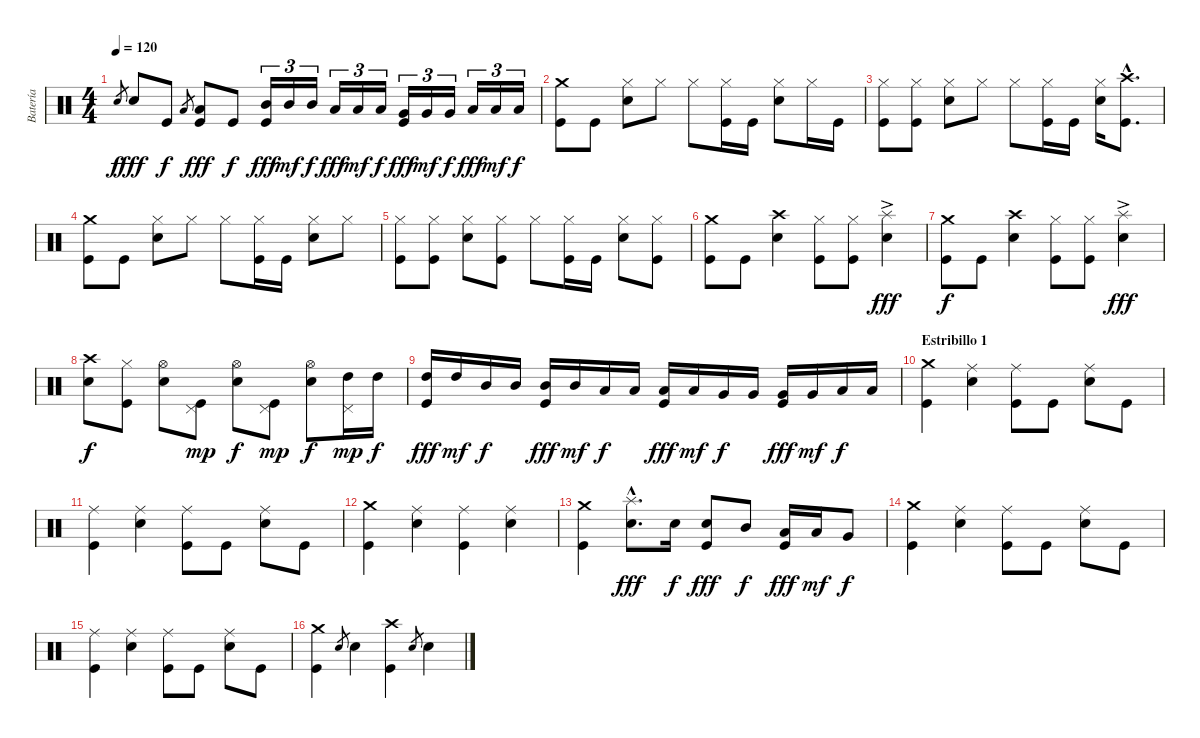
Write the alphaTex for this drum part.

\track ("Batería" "Batería") {instrument percussion}
\staff {score}
\articulation defaults
\ts (4 4)
\tempo 120
\clef neutral
\ks c "Electric Snare (hit)".8{gr dy f} "Electric Snare (hit)".8{dy fff} "Kick (hit)".8{dy f} "Low Tom (hit)".8{gr}
("Kick (hit)" "Low Tom (hit)").8{dy fff} "Kick (hit)".8{dy f} ("Kick (hit)" "Mid Tom (hit)").16{tu (3 2) dy fff} "Mid Tom (hit)".16{tu (3 2) dy mf} "Mid Tom (hit)".16{tu (3 2) dy f} "Low Tom (hit)".16{tu (3 2) dy fff} "Low Tom (hit)".16{tu (3 2) dy mf} "Low Tom (hit)".16{tu (3 2) dy f} ("Kick (hit)" "Very Low Tom (hit)").16{tu (3 2) dy fff} "Very Low Tom (hit)".16{tu (3 2) dy mf} "Very Low Tom (hit)".16{tu (3 2) dy f} "Low Floor Tom (hit)".16{tu (3 2) dy fff} "Low Floor Tom (hit)".16{tu (3 2) dy mf} "Low Floor Tom (hit)".16{tu (3 2) dy f} |
("Kick (hit)" "Crash medium (hit)").8 "Kick (hit)".8 ("Electric Snare (hit)" "Hi-Hat (closed)").8 "Hi-Hat (closed)".8 "Hi-Hat (closed)".8 ("Kick (hit)" "Hi-Hat (closed)").16 "Kick (hit)".16 ("Electric Snare (hit)" "Hi-Hat (closed)").8 "Hi-Hat (closed)".16 "Kick (hit)".16 |
("Kick (hit)" "Hi-Hat (closed)").8 ("Kick (hit)" "Hi-Hat (closed)").8 ("Electric Snare (hit)" "Hi-Hat (closed)").8 "Hi-Hat (closed)".8 "Hi-Hat (closed)".8 ("Kick (hit)" "Hi-Hat (closed)").16 "Kick (hit)".16 ("Electric Snare (hit)" "Hi-Hat (closed)").16 ("Kick (hit)"{hac} "Crash high (hit)"{hac}).8{d} |
("Kick (hit)" "Crash medium (hit)").8 "Kick (hit)".8 ("Electric Snare (hit)" "Hi-Hat (closed)").8 "Hi-Hat (closed)".8 "Hi-Hat (closed)".8 ("Kick (hit)" "Hi-Hat (closed)").16 "Kick (hit)".16 ("Electric Snare (hit)" "Hi-Hat (closed)").8 "Hi-Hat (closed)".8 |
("Kick (hit)" "Hi-Hat (closed)").8 ("Kick (hit)" "Hi-Hat (closed)").8 ("Electric Snare (hit)" "Hi-Hat (closed)").8 ("Kick (hit)" "Hi-Hat (closed)").8 "Hi-Hat (closed)".8 ("Kick (hit)" "Hi-Hat (closed)").16 "Kick (hit)".16 ("Electric Snare (hit)" "Hi-Hat (closed)").8 ("Kick (hit)" "Hi-Hat (closed)").8 |
("Kick (hit)" "Crash medium (hit)").8 "Kick (hit)".8 ("Electric Snare (hit)" "Crash high (hit)").4 ("Kick (hit)" "Hi-Hat (closed)").8 ("Kick (hit)" "Hi-Hat (closed)").8 ("Electric Snare (hit)" "Splash (hit)"{ac}).4{dy fff} |
("Kick (hit)" "Crash medium (hit)").8{dy f} "Kick (hit)".8 ("Electric Snare (hit)" "Crash high (hit)").4 ("Kick (hit)" "Hi-Hat (closed)").8 ("Kick (hit)" "Hi-Hat (closed)").8 ("Electric Snare (hit)" "Splash (hit)"{ac}).4{dy fff} |
("Electric Snare (hit)" "Crash high (hit)").8{dy f} ("Kick (hit)" "Hi-Hat (closed)").8 ("Electric Snare (hit)" "Hi-Hat (open)").8 ("Kick (hit)" "Pedal Hi-Hat (hit)").8{dy mp} ("Electric Snare (hit)" "Hi-Hat (open)").8{dy f} ("Kick (hit)" "Pedal Hi-Hat (hit)").8{dy mp} ("Electric Snare (hit)" "Hi-Hat (open)").8{dy f} ("High Tom (hit)" "Pedal Hi-Hat (hit)").16{dy mp} "High Tom (hit)".16{dy f} |
("Kick (hit)" "High Tom (hit)").16{dy fff} "High Tom (hit)".16{dy mf} "Mid Tom (hit)".16{dy f} "Mid Tom (hit)".16 ("Kick (hit)" "Mid Tom (hit)").16{dy fff} "Mid Tom (hit)".16{dy mf} "Low Tom (hit)".16{dy f} "Low Tom (hit)".16 ("Kick (hit)" "Low Tom (hit)").16{dy fff} "Low Tom (hit)".16{dy mf} "Very Low Tom (hit)".16{dy f} "Very Low Tom (hit)".16 ("Kick (hit)" "Very Low Tom (hit)").16{dy fff} "Very Low Tom (hit)".16{dy mf} "Low Floor Tom (hit)".16{dy f} "Low Floor Tom (hit)".16 |
\section ("" "Estribillo 1")
("Kick (hit)" "Crash medium (hit)").4 ("Electric Snare (hit)" "Ride (middle)").4 ("Kick (hit)" "Ride (middle)").8 "Kick (hit)".8 ("Electric Snare (hit)" "Ride (middle)").8 "Kick (hit)".8 |
("Kick (hit)" "Ride (middle)").4 ("Electric Snare (hit)" "Ride (middle)").4 ("Kick (hit)" "Ride (middle)").8 "Kick (hit)".8 ("Electric Snare (hit)" "Ride (middle)").8 "Kick (hit)".8 |
("Kick (hit)" "Crash medium (hit)").4 ("Electric Snare (hit)" "Ride (middle)").4 ("Kick (hit)" "Ride (middle)").4 ("Electric Snare (hit)" "Ride (middle)").4 |
("Kick (hit)" "Crash medium (hit)").4 ("Electric Snare (hit)"{hac} "Splash (hit)"{hac}).8{d dy fff} "Electric Snare (hit)".16{dy f} ("Kick (hit)" "Electric Snare (hit)").8{dy fff} "Mid Tom (hit)".8{dy f} ("Kick (hit)" "Low Tom (hit)").16{dy fff} "Low Tom (hit)".16{dy mf} "Very Low Tom (hit)".8{dy f} |
("Kick (hit)" "Crash medium (hit)").4 ("Electric Snare (hit)" "Ride (middle)").4 ("Kick (hit)" "Ride (middle)").8 "Kick (hit)".8 ("Electric Snare (hit)" "Ride (middle)").8 "Kick (hit)".8 |
("Kick (hit)" "Ride (middle)").4 ("Electric Snare (hit)" "Ride (middle)").4 ("Kick (hit)" "Ride (middle)").8 "Kick (hit)".8 ("Electric Snare (hit)" "Ride (middle)").8 "Kick (hit)".8 |
("Kick (hit)" "Crash medium (hit)").4 "Electric Snare (hit)".8{gr} "Electric Snare (hit)".4 ("Kick (hit)" "Crash high (hit)").4 "Electric Snare (hit)".8{gr} "Electric Snare (hit)".4
